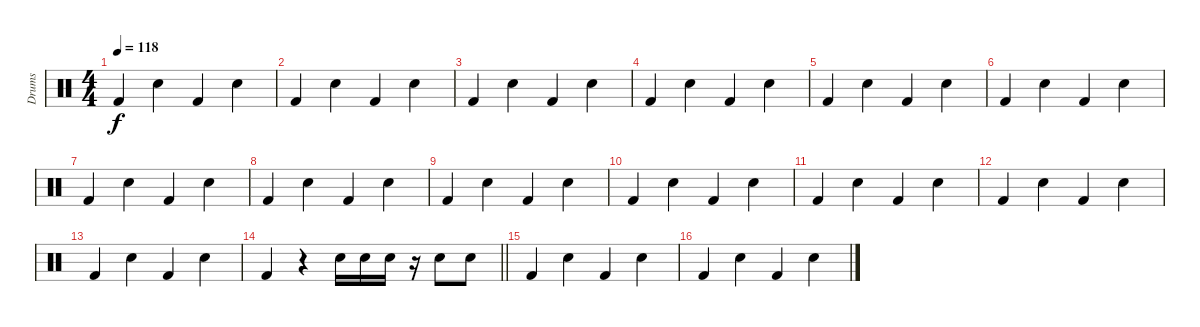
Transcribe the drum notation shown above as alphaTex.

\track ("Drums" "Drums") {instrument percussion}
\staff {score}
\articulation defaults
\ts (4 4)
\tempo 118
\clef neutral
\ks c "Kick (hit) 2".4{dy f} "Snare (hit) 2".4 "Kick (hit) 2".4 "Snare (hit) 2".4
|
"Kick (hit) 2".4 "Snare (hit) 2".4 "Kick (hit) 2".4 "Snare (hit) 2".4 |
"Kick (hit) 2".4 "Snare (hit) 2".4 "Kick (hit) 2".4 "Snare (hit) 2".4 |
"Kick (hit) 2".4 "Snare (hit) 2".4 "Kick (hit) 2".4 "Snare (hit) 2".4 |
"Kick (hit) 2".4 "Snare (hit) 2".4 "Kick (hit) 2".4 "Snare (hit) 2".4 |
"Kick (hit) 2".4 "Snare (hit) 2".4 "Kick (hit) 2".4 "Snare (hit) 2".4 |
"Kick (hit) 2".4 "Snare (hit) 2".4 "Kick (hit) 2".4 "Snare (hit) 2".4 |
"Kick (hit) 2".4 "Snare (hit) 2".4 "Kick (hit) 2".4 "Snare (hit) 2".4 |
"Kick (hit) 2".4 "Snare (hit) 2".4 "Kick (hit) 2".4 "Snare (hit) 2".4 |
"Kick (hit) 2".4 "Snare (hit) 2".4 "Kick (hit) 2".4 "Snare (hit) 2".4 |
"Kick (hit) 2".4 "Snare (hit) 2".4 "Kick (hit) 2".4 "Snare (hit) 2".4 |
"Kick (hit) 2".4 "Snare (hit) 2".4 "Kick (hit) 2".4 "Snare (hit) 2".4 |
"Kick (hit) 2".4 "Snare (hit) 2".4 "Kick (hit) 2".4 "Snare (hit) 2".4 |
\barLineRight lightlight "Kick (hit) 2".4
r.4 "Snare (hit) 2".16 "Snare (hit) 2".16 "Snare (hit) 2".16 r.16 "Snare (hit) 2".8 "Snare (hit) 2".8 |
"Kick (hit) 2".4 "Snare (hit) 2".4 "Kick (hit) 2".4 "Snare (hit) 2".4 |
"Kick (hit) 2".4 "Snare (hit) 2".4 "Kick (hit) 2".4 "Snare (hit) 2".4
